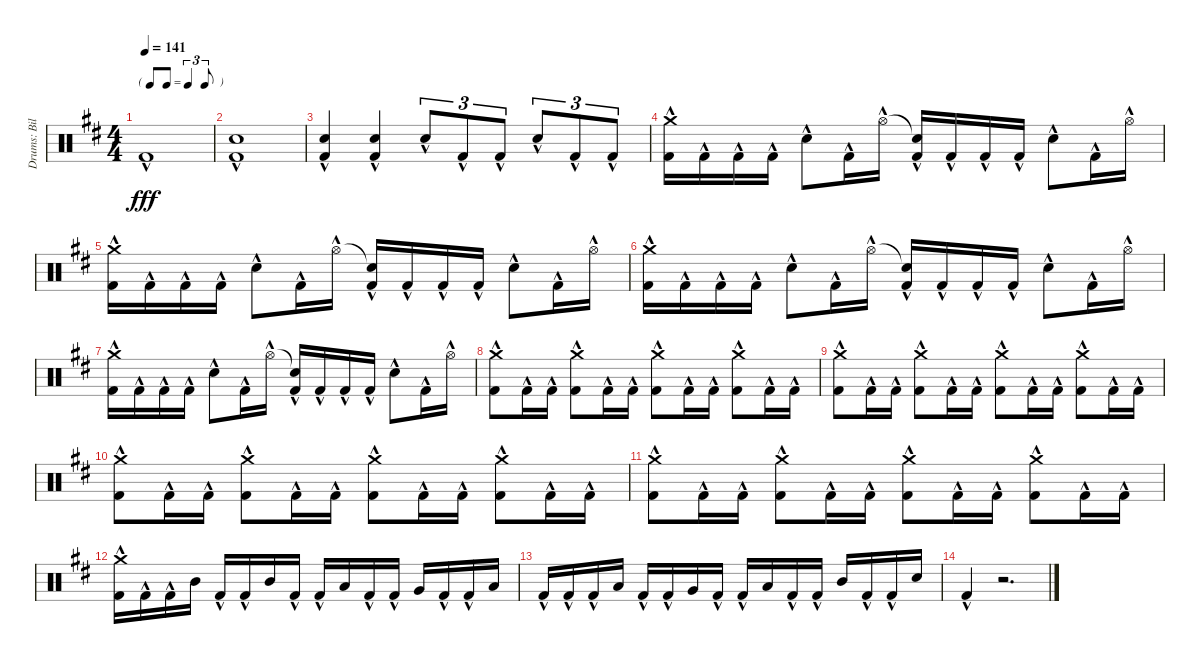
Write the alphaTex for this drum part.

\track ("Drums: Bill" "Drums: Bil") {instrument percussion}
\staff {score}
\articulation defaults
\ts (4 4)
\tf triplet8th
\tempo 141
\clef neutral
\ks d "Kick (hit) 2"{hac}.1{dy fff}
|
("Snare (hit) 2"{hac} "Kick (hit) 2"{hac}).1 |
("Snare (hit) 2"{hac} "Kick (hit) 2"{hac}).4 ("Snare (hit) 2"{hac} "Kick (hit) 2"{hac}).4 "Snare (hit) 2"{hac}.8{tu (3 2)} "Kick (hit) 2"{hac}.8{tu (3 2)} "Kick (hit) 2"{hac}.8{tu (3 2)} "Snare (hit) 2"{hac}.8{tu (3 2)} "Kick (hit) 2"{hac}.8{tu (3 2)} "Kick (hit) 2"{hac}.8{tu (3 2)} |
("Crash medium (hit)"{hac} "Kick (hit) 2"{hac}).16 "Kick (hit) 2"{hac}.16 "Kick (hit) 2"{hac}.16 "Kick (hit) 2"{hac}.16 "Snare (hit) 2"{hac}.8 "Kick (hit) 2"{hac}.16 "Hi-Hat (open)"{hac}.16 ("Snare (hit)"{t} "Kick (hit) 2"{hac}).16 "Kick (hit) 2"{hac}.16 "Kick (hit) 2"{hac}.16 "Kick (hit) 2"{hac}.16 "Snare (hit) 2"{hac}.8 "Kick (hit) 2"{hac}.16 "Hi-Hat (open)"{hac}.16 |
("Crash medium (hit)"{hac} "Kick (hit) 2"{hac}).16 "Kick (hit) 2"{hac}.16 "Kick (hit) 2"{hac}.16 "Kick (hit) 2"{hac}.16 "Snare (hit) 2"{hac}.8 "Kick (hit) 2"{hac}.16 "Hi-Hat (open)"{hac}.16 ("Snare (hit)"{t} "Kick (hit) 2"{hac}).16 "Kick (hit) 2"{hac}.16 "Kick (hit) 2"{hac}.16 "Kick (hit) 2"{hac}.16 "Snare (hit) 2"{hac}.8 "Kick (hit) 2"{hac}.16 "Hi-Hat (open)"{hac}.16 |
("Crash medium (hit)"{hac} "Kick (hit) 2"{hac}).16 "Kick (hit) 2"{hac}.16 "Kick (hit) 2"{hac}.16 "Kick (hit) 2"{hac}.16 "Snare (hit) 2"{hac}.8 "Kick (hit) 2"{hac}.16 "Hi-Hat (open)"{hac}.16 ("Snare (hit)"{t} "Kick (hit) 2"{hac}).16 "Kick (hit) 2"{hac}.16 "Kick (hit) 2"{hac}.16 "Kick (hit) 2"{hac}.16 "Snare (hit) 2"{hac}.8 "Kick (hit) 2"{hac}.16 "Hi-Hat (open)"{hac}.16 |
("Crash medium (hit)"{hac} "Kick (hit) 2"{hac}).16 "Kick (hit) 2"{hac}.16 "Kick (hit) 2"{hac}.16 "Kick (hit) 2"{hac}.16 "Snare (hit) 2"{hac}.8 "Kick (hit) 2"{hac}.16 "Hi-Hat (open)"{hac}.16 ("Snare (hit)"{t} "Kick (hit) 2"{hac}).16 "Kick (hit) 2"{hac}.16 "Kick (hit) 2"{hac}.16 "Kick (hit) 2"{hac}.16 "Snare (hit) 2"{hac}.8 "Kick (hit) 2"{hac}.16 "Hi-Hat (open)"{hac}.16 |
("Crash medium (hit)"{hac} "Kick (hit) 2"{hac}).8 "Kick (hit) 2"{hac}.16 "Kick (hit) 2"{hac}.16 ("Crash medium (hit)"{hac} "Kick (hit) 2"{hac}).8 "Kick (hit) 2"{hac}.16 "Kick (hit) 2"{hac}.16 ("Crash medium (hit)"{hac} "Kick (hit) 2"{hac}).8 "Kick (hit) 2"{hac}.16 "Kick (hit) 2"{hac}.16 ("Crash medium (hit)"{hac} "Kick (hit) 2"{hac}).8 "Kick (hit) 2"{hac}.16 "Kick (hit) 2"{hac}.16 |
("Crash medium (hit)"{hac} "Kick (hit) 2"{hac}).8 "Kick (hit) 2"{hac}.16 "Kick (hit) 2"{hac}.16 ("Crash medium (hit)"{hac} "Kick (hit) 2"{hac}).8 "Kick (hit) 2"{hac}.16 "Kick (hit) 2"{hac}.16 ("Crash medium (hit)"{hac} "Kick (hit) 2"{hac}).8 "Kick (hit) 2"{hac}.16 "Kick (hit) 2"{hac}.16 ("Crash medium (hit)"{hac} "Kick (hit) 2"{hac}).8 "Kick (hit) 2"{hac}.16 "Kick (hit) 2"{hac}.16 |
("Crash medium (hit)"{hac} "Kick (hit) 2"{hac}).8 "Kick (hit) 2"{hac}.16 "Kick (hit) 2"{hac}.16 ("Crash medium (hit)"{hac} "Kick (hit) 2"{hac}).8 "Kick (hit) 2"{hac}.16 "Kick (hit) 2"{hac}.16 ("Crash medium (hit)"{hac} "Kick (hit) 2"{hac}).8 "Kick (hit) 2"{hac}.16 "Kick (hit) 2"{hac}.16 ("Crash medium (hit)"{hac} "Kick (hit) 2"{hac}).8 "Kick (hit) 2"{hac}.16 "Kick (hit) 2"{hac}.16 |
("Crash medium (hit)"{hac} "Kick (hit) 2"{hac}).8 "Kick (hit) 2"{hac}.16 "Kick (hit) 2"{hac}.16 ("Crash medium (hit)"{hac} "Kick (hit) 2"{hac}).8 "Kick (hit) 2"{hac}.16 "Kick (hit) 2"{hac}.16 ("Crash medium (hit)"{hac} "Kick (hit) 2"{hac}).8 "Kick (hit) 2"{hac}.16 "Kick (hit) 2"{hac}.16 ("Crash medium (hit)"{hac} "Kick (hit) 2"{hac}).8 "Kick (hit) 2"{hac}.16 "Kick (hit) 2"{hac}.16 |
("Crash medium (hit)"{hac} "Kick (hit) 2"{hac}).16 "Kick (hit) 2"{hac}.16 "Kick (hit) 2"{hac}.16 "Mid Tom (hit)".16 "Kick (hit) 2"{hac}.16 "Kick (hit) 2"{hac}.16 "Mid Tom (hit)".16 "Kick (hit) 2"{hac}.16 "Kick (hit) 2"{hac}.16 "Low Tom (hit)".16 "Kick (hit) 2"{hac}.16 "Kick (hit) 2"{hac}.16 "Very Low Tom (hit)".16 "Kick (hit) 2"{hac}.16 "Kick (hit) 2"{hac}.16 "Low Floor Tom (hit)".16 |
"Kick (hit) 2"{hac}.16 "Kick (hit) 2"{hac}.16 "Kick (hit) 2"{hac}.16 "Low Floor Tom (hit)".16 "Kick (hit) 2"{hac}.16 "Kick (hit) 2"{hac}.16 "Very Low Tom (hit)".16 "Kick (hit) 2"{hac}.16 "Kick (hit) 2"{hac}.16 "Low Tom (hit)".16 "Kick (hit) 2"{hac}.16 "Kick (hit) 2"{hac}.16 "Mid Tom (hit)".16 "Kick (hit) 2"{hac}.16 "Kick (hit) 2"{hac}.16 "Snare (hit) 2".16 |
"Kick (hit) 2"{hac}.4 r.2{d}
